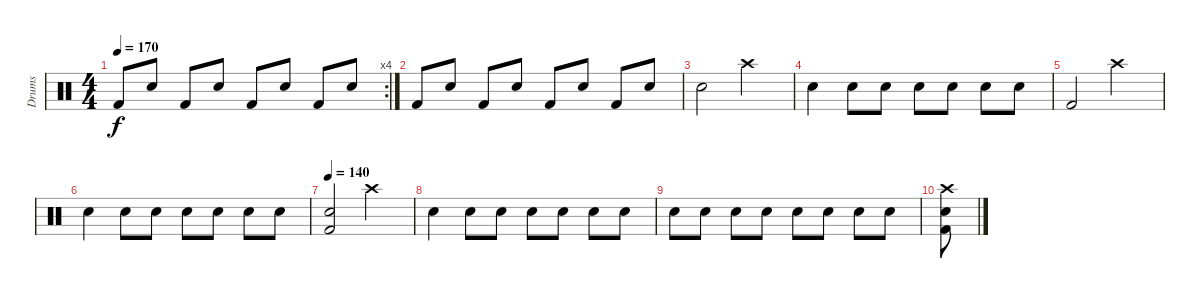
\track ("Drums" "Drums") {instrument percussion}
\staff {score}
\articulation defaults
\rc 4
\ts (4 4)
\tempo 170
\clef neutral
\ks c "Kick (hit) 2".8{dy f} "Snare (hit) 2".8 "Kick (hit) 2".8 "Snare (hit) 2".8 "Kick (hit) 2".8 "Snare (hit) 2".8 "Kick (hit) 2".8 "Snare (hit) 2".8
|
"Kick (hit) 2".8 "Snare (hit) 2".8 "Kick (hit) 2".8 "Snare (hit) 2".8 "Kick (hit) 2".8 "Snare (hit) 2".8 "Kick (hit) 2".8 "Snare (hit) 2".8 |
"Snare (hit) 2".2 "Crash high (hit)".2 |
"Snare (hit) 2".4 "Snare (hit) 2".8 "Snare (hit) 2".8 "Snare (hit) 2".8 "Snare (hit) 2".8 "Snare (hit) 2".8 "Snare (hit) 2".8 |
"Kick (hit) 2".2 "Crash high (hit)".2 |
"Snare (hit) 2".4 "Snare (hit) 2".8 "Snare (hit) 2".8 "Snare (hit) 2".8 "Snare (hit) 2".8 "Snare (hit) 2".8 "Snare (hit) 2".8 |
\tempo 140
("Kick (hit) 2" "Snare (hit) 2").2 "Crash high (hit)".2 |
"Snare (hit) 2".4 "Snare (hit) 2".8 "Snare (hit) 2".8 "Snare (hit) 2".8 "Snare (hit) 2".8 "Snare (hit) 2".8 "Snare (hit) 2".8 |
"Snare (hit) 2".8 "Snare (hit) 2".8 "Snare (hit) 2".8 "Snare (hit) 2".8 "Snare (hit) 2".8 "Snare (hit) 2".8 "Snare (hit) 2".8 "Snare (hit) 2".8 |
("Kick (hit) 2" "Snare (hit) 2" "Crash high (hit)").8
